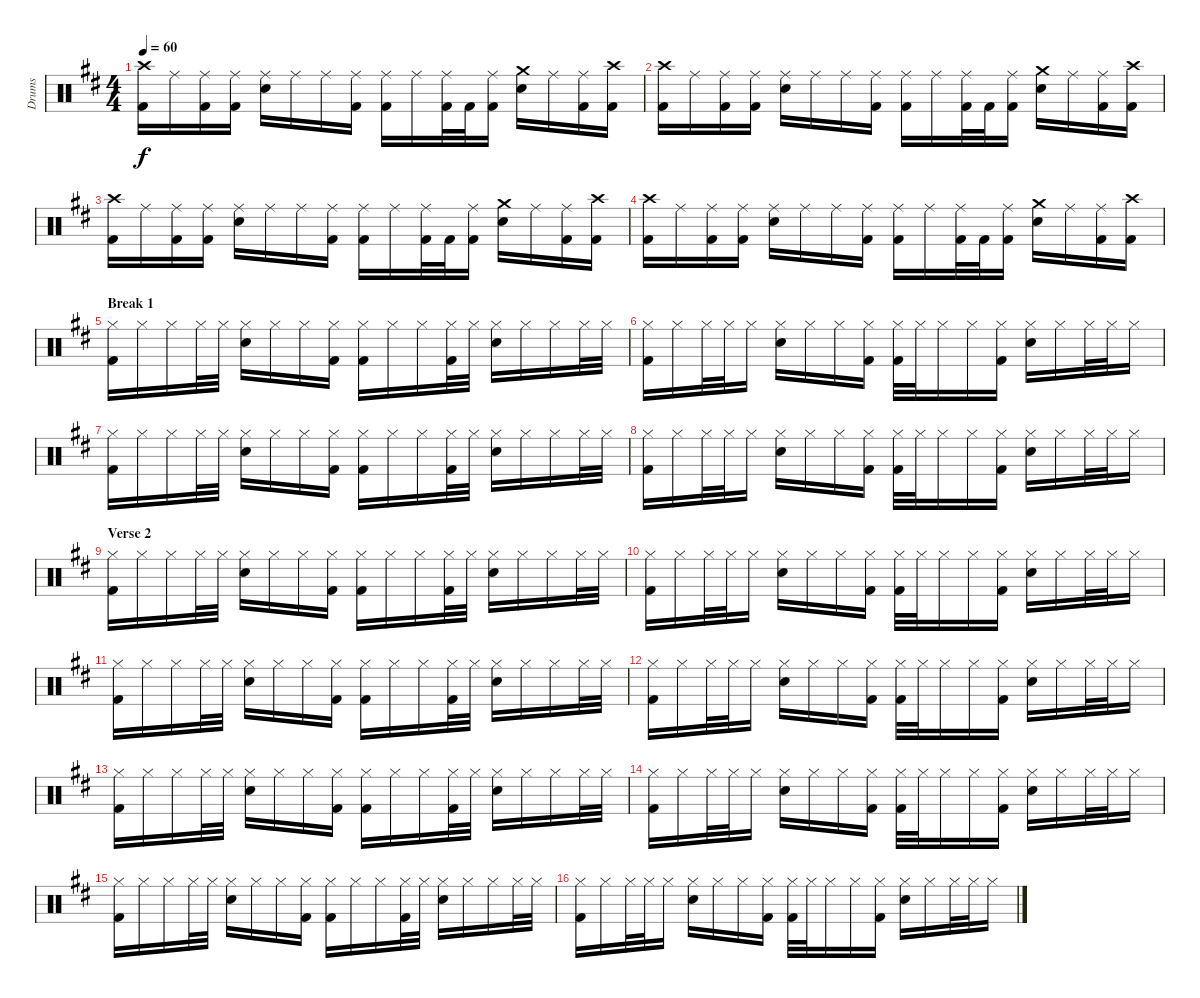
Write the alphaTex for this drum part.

\track ("Drums" "Drums") {instrument percussion}
\staff {score}
\articulation defaults
\ts (4 4)
\tempo 60
\clef neutral
\ks bminor
("Crash high (hit)" "Kick (hit) 2").16{dy f} "Ride (middle)".16 ("Ride (middle)" "Kick (hit) 2").16 ("Ride (middle)" "Kick (hit) 2").16 ("Ride (middle)" "Snare (hit) 2").16 "Ride (middle)".16 "Ride (middle)".16 ("Ride (middle)" "Kick (hit) 2").16 ("Ride (middle)" "Kick (hit) 2").16 "Ride (middle)".16 ("Ride (middle)" "Kick (hit) 2").32 "Kick (hit) 2".32 ("Ride (middle)" "Kick (hit) 2").16 ("Crash medium (hit)" "Snare (hit) 2").16 "Ride (middle)".16 ("Ride (middle)" "Kick (hit) 2").16 ("Crash high (hit)" "Kick (hit) 2").16 |
("Crash high (hit)" "Kick (hit) 2").16 "Ride (middle)".16 ("Ride (middle)" "Kick (hit) 2").16 ("Ride (middle)" "Kick (hit) 2").16 ("Ride (middle)" "Snare (hit) 2").16 "Ride (middle)".16 "Ride (middle)".16 ("Ride (middle)" "Kick (hit) 2").16 ("Ride (middle)" "Kick (hit) 2").16 "Ride (middle)".16 ("Ride (middle)" "Kick (hit) 2").32 "Kick (hit) 2".32 ("Ride (middle)" "Kick (hit) 2").16 ("Crash medium (hit)" "Snare (hit) 2").16 "Ride (middle)".16 ("Ride (middle)" "Kick (hit) 2").16 ("Crash high (hit)" "Kick (hit) 2").16 |
("Crash high (hit)" "Kick (hit) 2").16 "Ride (middle)".16 ("Ride (middle)" "Kick (hit) 2").16 ("Ride (middle)" "Kick (hit) 2").16 ("Ride (middle)" "Snare (hit) 2").16 "Ride (middle)".16 "Ride (middle)".16 ("Ride (middle)" "Kick (hit) 2").16 ("Ride (middle)" "Kick (hit) 2").16 "Ride (middle)".16 ("Ride (middle)" "Kick (hit) 2").32 "Kick (hit) 2".32 ("Ride (middle)" "Kick (hit) 2").16 ("Crash medium (hit)" "Snare (hit) 2").16 "Ride (middle)".16 ("Ride (middle)" "Kick (hit) 2").16 ("Crash high (hit)" "Kick (hit) 2").16 |
("Crash high (hit)" "Kick (hit) 2").16 "Ride (middle)".16 ("Ride (middle)" "Kick (hit) 2").16 ("Ride (middle)" "Kick (hit) 2").16 ("Ride (middle)" "Snare (hit) 2").16 "Ride (middle)".16 "Ride (middle)".16 ("Ride (middle)" "Kick (hit) 2").16 ("Ride (middle)" "Kick (hit) 2").16 "Ride (middle)".16 ("Ride (middle)" "Kick (hit) 2").32 "Kick (hit) 2".32 ("Ride (middle)" "Kick (hit) 2").16 ("Crash medium (hit)" "Snare (hit) 2").16 "Ride (middle)".16 ("Ride (middle)" "Kick (hit) 2").16 ("Crash high (hit)" "Kick (hit) 2").16 |
\section ("" "Break 1")
("Hi-Hat (closed)" "Kick (hit) 2").16 "Hi-Hat (closed)".16 "Hi-Hat (closed)".16 "Hi-Hat (closed)".32 "Hi-Hat (closed)".32 ("Hi-Hat (closed)" "Snare (hit) 2").16 "Hi-Hat (closed)".16 "Hi-Hat (closed)".16 ("Hi-Hat (closed)" "Kick (hit) 2").16 ("Hi-Hat (closed)" "Kick (hit) 2").16 "Hi-Hat (closed)".16 "Hi-Hat (closed)".16 ("Hi-Hat (closed)" "Kick (hit) 2").32 "Hi-Hat (closed)".32 ("Hi-Hat (closed)" "Snare (hit) 2").16 "Hi-Hat (closed)".16 "Hi-Hat (closed)".16 "Hi-Hat (closed)".32 "Hi-Hat (closed)".32 |
("Hi-Hat (closed)" "Kick (hit) 2").16 "Hi-Hat (closed)".16 "Hi-Hat (closed)".32 "Hi-Hat (closed)".32 "Hi-Hat (closed)".16 ("Hi-Hat (closed)" "Snare (hit) 2").16 "Hi-Hat (closed)".16 "Hi-Hat (closed)".16 ("Hi-Hat (closed)" "Kick (hit) 2").16 ("Hi-Hat (closed)" "Kick (hit) 2").32 "Hi-Hat (closed)".32 "Hi-Hat (closed)".16 "Hi-Hat (closed)".16 ("Hi-Hat (closed)" "Kick (hit) 2").16 ("Hi-Hat (closed)" "Snare (hit) 2").16 "Hi-Hat (closed)".16 "Hi-Hat (closed)".32 "Hi-Hat (closed)".32 "Hi-Hat (closed)".16 |
("Hi-Hat (closed)" "Kick (hit) 2").16 "Hi-Hat (closed)".16 "Hi-Hat (closed)".16 "Hi-Hat (closed)".32 "Hi-Hat (closed)".32 ("Hi-Hat (closed)" "Snare (hit) 2").16 "Hi-Hat (closed)".16 "Hi-Hat (closed)".16 ("Hi-Hat (closed)" "Kick (hit) 2").16 ("Hi-Hat (closed)" "Kick (hit) 2").16 "Hi-Hat (closed)".16 "Hi-Hat (closed)".16 ("Hi-Hat (closed)" "Kick (hit) 2").32 "Hi-Hat (closed)".32 ("Hi-Hat (closed)" "Snare (hit) 2").16 "Hi-Hat (closed)".16 "Hi-Hat (closed)".16 "Hi-Hat (closed)".32 "Hi-Hat (closed)".32 |
("Hi-Hat (closed)" "Kick (hit) 2").16 "Hi-Hat (closed)".16 "Hi-Hat (closed)".32 "Hi-Hat (closed)".32 "Hi-Hat (closed)".16 ("Hi-Hat (closed)" "Snare (hit) 2").16 "Hi-Hat (closed)".16 "Hi-Hat (closed)".16 ("Hi-Hat (closed)" "Kick (hit) 2").16 ("Hi-Hat (closed)" "Kick (hit) 2").32 "Hi-Hat (closed)".32 "Hi-Hat (closed)".16 "Hi-Hat (closed)".16 ("Hi-Hat (closed)" "Kick (hit) 2").16 ("Hi-Hat (closed)" "Snare (hit) 2").16 "Hi-Hat (closed)".16 "Hi-Hat (closed)".32 "Hi-Hat (closed)".32 "Hi-Hat (closed)".16 |
\section ("" "Verse 2")
("Hi-Hat (closed)" "Kick (hit) 2").16 "Hi-Hat (closed)".16 "Hi-Hat (closed)".16 "Hi-Hat (closed)".32 "Hi-Hat (closed)".32 ("Hi-Hat (closed)" "Snare (hit) 2").16 "Hi-Hat (closed)".16 "Hi-Hat (closed)".16 ("Hi-Hat (closed)" "Kick (hit) 2").16 ("Hi-Hat (closed)" "Kick (hit) 2").16 "Hi-Hat (closed)".16 "Hi-Hat (closed)".16 ("Hi-Hat (closed)" "Kick (hit) 2").32 "Hi-Hat (closed)".32 ("Hi-Hat (closed)" "Snare (hit) 2").16 "Hi-Hat (closed)".16 "Hi-Hat (closed)".16 "Hi-Hat (closed)".32 "Hi-Hat (closed)".32 |
("Hi-Hat (closed)" "Kick (hit) 2").16 "Hi-Hat (closed)".16 "Hi-Hat (closed)".32 "Hi-Hat (closed)".32 "Hi-Hat (closed)".16 ("Hi-Hat (closed)" "Snare (hit) 2").16 "Hi-Hat (closed)".16 "Hi-Hat (closed)".16 ("Hi-Hat (closed)" "Kick (hit) 2").16 ("Hi-Hat (closed)" "Kick (hit) 2").32 "Hi-Hat (closed)".32 "Hi-Hat (closed)".16 "Hi-Hat (closed)".16 ("Hi-Hat (closed)" "Kick (hit) 2").16 ("Hi-Hat (closed)" "Snare (hit) 2").16 "Hi-Hat (closed)".16 "Hi-Hat (closed)".32 "Hi-Hat (closed)".32 "Hi-Hat (closed)".16 |
("Hi-Hat (closed)" "Kick (hit) 2").16 "Hi-Hat (closed)".16 "Hi-Hat (closed)".16 "Hi-Hat (closed)".32 "Hi-Hat (closed)".32 ("Hi-Hat (closed)" "Snare (hit) 2").16 "Hi-Hat (closed)".16 "Hi-Hat (closed)".16 ("Hi-Hat (closed)" "Kick (hit) 2").16 ("Hi-Hat (closed)" "Kick (hit) 2").16 "Hi-Hat (closed)".16 "Hi-Hat (closed)".16 ("Hi-Hat (closed)" "Kick (hit) 2").32 "Hi-Hat (closed)".32 ("Hi-Hat (closed)" "Snare (hit) 2").16 "Hi-Hat (closed)".16 "Hi-Hat (closed)".16 "Hi-Hat (closed)".32 "Hi-Hat (closed)".32 |
("Hi-Hat (closed)" "Kick (hit) 2").16 "Hi-Hat (closed)".16 "Hi-Hat (closed)".32 "Hi-Hat (closed)".32 "Hi-Hat (closed)".16 ("Hi-Hat (closed)" "Snare (hit) 2").16 "Hi-Hat (closed)".16 "Hi-Hat (closed)".16 ("Hi-Hat (closed)" "Kick (hit) 2").16 ("Hi-Hat (closed)" "Kick (hit) 2").32 "Hi-Hat (closed)".32 "Hi-Hat (closed)".16 "Hi-Hat (closed)".16 ("Hi-Hat (closed)" "Kick (hit) 2").16 ("Hi-Hat (closed)" "Snare (hit) 2").16 "Hi-Hat (closed)".16 "Hi-Hat (closed)".32 "Hi-Hat (closed)".32 "Hi-Hat (closed)".16 |
("Hi-Hat (closed)" "Kick (hit) 2").16 "Hi-Hat (closed)".16 "Hi-Hat (closed)".16 "Hi-Hat (closed)".32 "Hi-Hat (closed)".32 ("Hi-Hat (closed)" "Snare (hit) 2").16 "Hi-Hat (closed)".16 "Hi-Hat (closed)".16 ("Hi-Hat (closed)" "Kick (hit) 2").16 ("Hi-Hat (closed)" "Kick (hit) 2").16 "Hi-Hat (closed)".16 "Hi-Hat (closed)".16 ("Hi-Hat (closed)" "Kick (hit) 2").32 "Hi-Hat (closed)".32 ("Hi-Hat (closed)" "Snare (hit) 2").16 "Hi-Hat (closed)".16 "Hi-Hat (closed)".16 "Hi-Hat (closed)".32 "Hi-Hat (closed)".32 |
("Hi-Hat (closed)" "Kick (hit) 2").16 "Hi-Hat (closed)".16 "Hi-Hat (closed)".32 "Hi-Hat (closed)".32 "Hi-Hat (closed)".16 ("Hi-Hat (closed)" "Snare (hit) 2").16 "Hi-Hat (closed)".16 "Hi-Hat (closed)".16 ("Hi-Hat (closed)" "Kick (hit) 2").16 ("Hi-Hat (closed)" "Kick (hit) 2").32 "Hi-Hat (closed)".32 "Hi-Hat (closed)".16 "Hi-Hat (closed)".16 ("Hi-Hat (closed)" "Kick (hit) 2").16 ("Hi-Hat (closed)" "Snare (hit) 2").16 "Hi-Hat (closed)".16 "Hi-Hat (closed)".32 "Hi-Hat (closed)".32 "Hi-Hat (closed)".16 |
("Hi-Hat (closed)" "Kick (hit) 2").16 "Hi-Hat (closed)".16 "Hi-Hat (closed)".16 "Hi-Hat (closed)".32 "Hi-Hat (closed)".32 ("Hi-Hat (closed)" "Snare (hit) 2").16 "Hi-Hat (closed)".16 "Hi-Hat (closed)".16 ("Hi-Hat (closed)" "Kick (hit) 2").16 ("Hi-Hat (closed)" "Kick (hit) 2").16 "Hi-Hat (closed)".16 "Hi-Hat (closed)".16 ("Hi-Hat (closed)" "Kick (hit) 2").32 "Hi-Hat (closed)".32 ("Hi-Hat (closed)" "Snare (hit) 2").16 "Hi-Hat (closed)".16 "Hi-Hat (closed)".16 "Hi-Hat (closed)".32 "Hi-Hat (closed)".32 |
("Hi-Hat (closed)" "Kick (hit) 2").16 "Hi-Hat (closed)".16 "Hi-Hat (closed)".32 "Hi-Hat (closed)".32 "Hi-Hat (closed)".16 ("Hi-Hat (closed)" "Snare (hit) 2").16 "Hi-Hat (closed)".16 "Hi-Hat (closed)".16 ("Hi-Hat (closed)" "Kick (hit) 2").16 ("Hi-Hat (closed)" "Kick (hit) 2").32 "Hi-Hat (closed)".32 "Hi-Hat (closed)".16 "Hi-Hat (closed)".16 ("Hi-Hat (closed)" "Kick (hit) 2").16 ("Hi-Hat (closed)" "Snare (hit) 2").16 "Hi-Hat (closed)".16 "Hi-Hat (closed)".32 "Hi-Hat (closed)".32 "Hi-Hat (closed)".16
